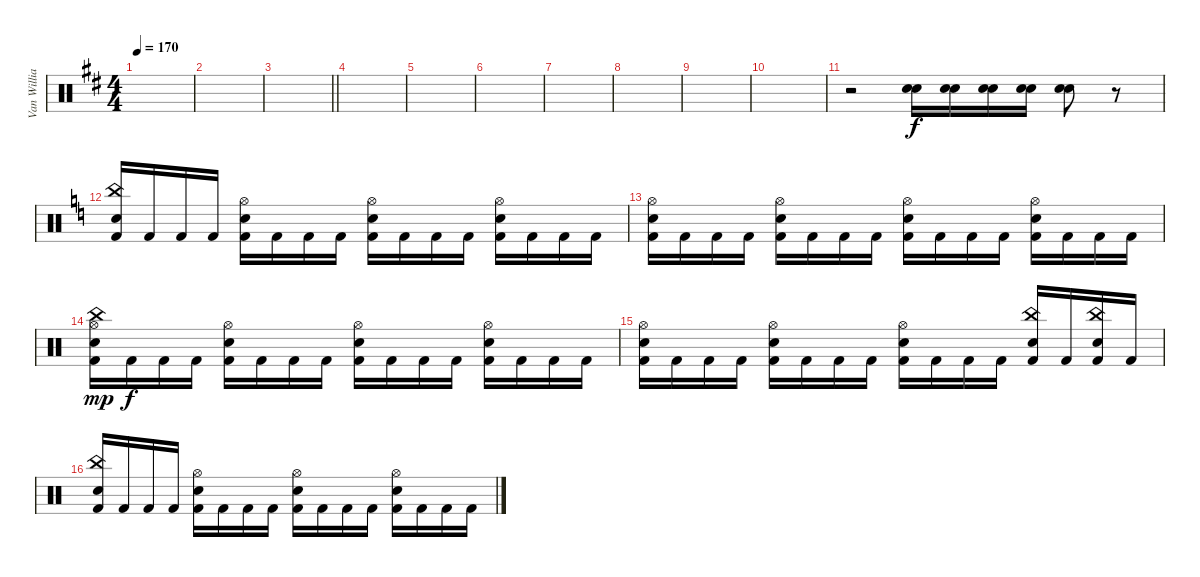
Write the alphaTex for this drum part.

\track ("Van Williams" "Van Willia") {instrument percussion}
\staff {score}
\articulation defaults
\ts (4 4)
\tempo 170
\clef neutral
\ks d
|
|
\barLineRight lightlight
|
|
|
|
|
|
|
|
r.2 ("Electric Snare (hit)" "Electric Snare (hit)").16 ("Electric Snare (hit)" "Electric Snare (hit)").16 ("Electric Snare (hit)" "Electric Snare (hit)").16 ("Electric Snare (hit)" "Electric Snare (hit)").16 ("Electric Snare (hit)" "Electric Snare (hit)").8 r.8 |
\ks c
("China (hit)" "Electric Snare (hit)" "Kick (hit) 2").16{dy f} "Kick (hit) 2".16 "Kick (hit) 2".16 "Kick (hit) 2".16 ("Hi-Hat (open)" "Electric Snare (hit)" "Kick (hit) 2").16 "Kick (hit) 2".16 "Kick (hit) 2".16 "Kick (hit) 2".16 ("Hi-Hat (open)" "Electric Snare (hit)" "Kick (hit) 2").16 "Kick (hit) 2".16 "Kick (hit) 2".16 "Kick (hit) 2".16 ("Hi-Hat (open)" "Electric Snare (hit)" "Kick (hit) 2").16 "Kick (hit) 2".16 "Kick (hit) 2".16 "Kick (hit) 2".16 |
("Hi-Hat (open)" "Electric Snare (hit)" "Kick (hit) 2").16 "Kick (hit) 2".16 "Kick (hit) 2".16 "Kick (hit) 2".16 ("Hi-Hat (open)" "Electric Snare (hit)" "Kick (hit) 2").16 "Kick (hit) 2".16 "Kick (hit) 2".16 "Kick (hit) 2".16 ("Hi-Hat (open)" "Electric Snare (hit)" "Kick (hit) 2").16 "Kick (hit) 2".16 "Kick (hit) 2".16 "Kick (hit) 2".16 ("Hi-Hat (open)" "Electric Snare (hit)" "Kick (hit) 2").16 "Kick (hit) 2".16 "Kick (hit) 2".16 "Kick (hit) 2".16 |
("Hi-Hat (open)" "China (hit)" "Electric Snare (hit)" "Kick (hit) 2").16{dy mp} "Kick (hit) 2".16{dy f} "Kick (hit) 2".16 "Kick (hit) 2".16 ("Hi-Hat (open)" "Electric Snare (hit)" "Kick (hit) 2").16 "Kick (hit) 2".16 "Kick (hit) 2".16 "Kick (hit) 2".16 ("Hi-Hat (open)" "Electric Snare (hit)" "Kick (hit) 2").16 "Kick (hit) 2".16 "Kick (hit) 2".16 "Kick (hit) 2".16 ("Hi-Hat (open)" "Electric Snare (hit)" "Kick (hit) 2").16 "Kick (hit) 2".16 "Kick (hit) 2".16 "Kick (hit) 2".16 |
("Hi-Hat (open)" "Electric Snare (hit)" "Kick (hit) 2").16 "Kick (hit) 2".16 "Kick (hit) 2".16 "Kick (hit) 2".16 ("Hi-Hat (open)" "Electric Snare (hit)" "Kick (hit) 2").16 "Kick (hit) 2".16 "Kick (hit) 2".16 "Kick (hit) 2".16 ("Hi-Hat (open)" "Electric Snare (hit)" "Kick (hit) 2").16 "Kick (hit) 2".16 "Kick (hit) 2".16 "Kick (hit) 2".16 ("China (hit)" "Electric Snare (hit)" "Kick (hit) 2").16 "Kick (hit) 2".16 ("China (hit)" "Electric Snare (hit)" "Kick (hit) 2").16 "Kick (hit) 2".16 |
("China (hit)" "Electric Snare (hit)" "Kick (hit) 2").16 "Kick (hit) 2".16 "Kick (hit) 2".16 "Kick (hit) 2".16 ("Hi-Hat (open)" "Electric Snare (hit)" "Kick (hit) 2").16 "Kick (hit) 2".16 "Kick (hit) 2".16 "Kick (hit) 2".16 ("Hi-Hat (open)" "Electric Snare (hit)" "Kick (hit) 2").16 "Kick (hit) 2".16 "Kick (hit) 2".16 "Kick (hit) 2".16 ("Hi-Hat (open)" "Electric Snare (hit)" "Kick (hit) 2").16 "Kick (hit) 2".16 "Kick (hit) 2".16 "Kick (hit) 2".16
